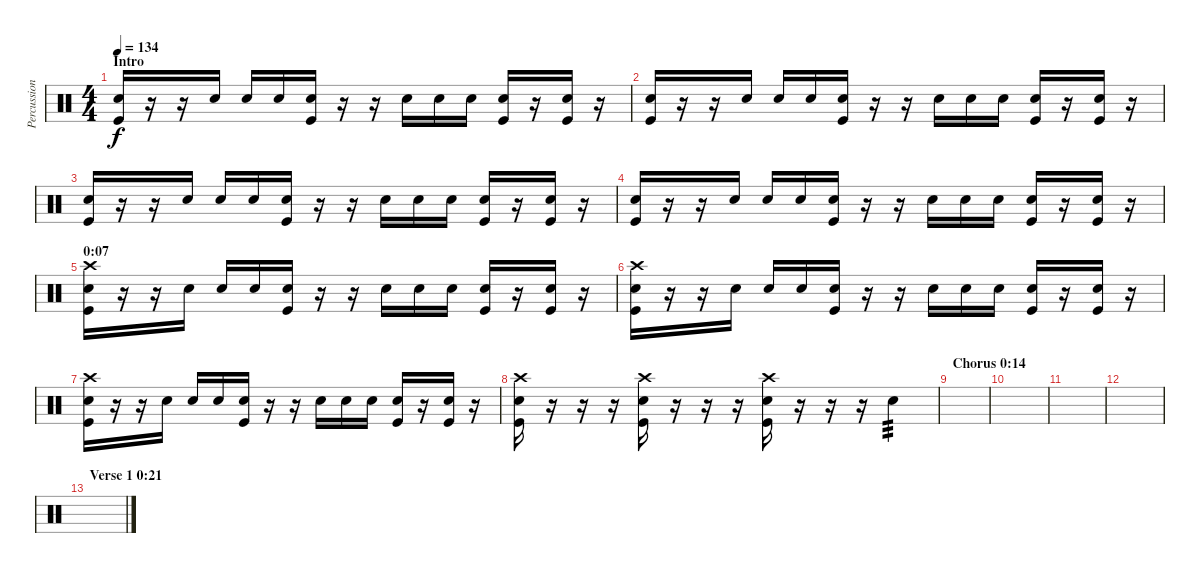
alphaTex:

\track ("Percussions" "Percussion") {instrument percussion}
\staff {score}
\articulation defaults
\ts (4 4)
\section ("" "Intro")
\tempo 134
\clef neutral
\ks c
("Kick (hit)" "Electric Snare (hit)").16{dy f} r.16 r.16 "Electric Snare (hit)".16 "Electric Snare (hit)".16 "Electric Snare (hit)".16 ("Kick (hit)" "Electric Snare (hit)").16 r.16 r.16 "Electric Snare (hit)".16 "Electric Snare (hit)".16 "Electric Snare (hit)".16 ("Kick (hit)" "Electric Snare (hit)").16 r.16 ("Kick (hit)" "Electric Snare (hit)").16 r.16 |
("Kick (hit)" "Electric Snare (hit)").16 r.16 r.16 "Electric Snare (hit)".16 "Electric Snare (hit)".16 "Electric Snare (hit)".16 ("Kick (hit)" "Electric Snare (hit)").16 r.16 r.16 "Electric Snare (hit)".16 "Electric Snare (hit)".16 "Electric Snare (hit)".16 ("Kick (hit)" "Electric Snare (hit)").16 r.16 ("Kick (hit)" "Electric Snare (hit)").16 r.16 |
("Kick (hit)" "Electric Snare (hit)").16 r.16 r.16 "Electric Snare (hit)".16 "Electric Snare (hit)".16 "Electric Snare (hit)".16 ("Kick (hit)" "Electric Snare (hit)").16 r.16 r.16 "Electric Snare (hit)".16 "Electric Snare (hit)".16 "Electric Snare (hit)".16 ("Kick (hit)" "Electric Snare (hit)").16 r.16 ("Kick (hit)" "Electric Snare (hit)").16 r.16 |
("Kick (hit)" "Electric Snare (hit)").16 r.16 r.16 "Electric Snare (hit)".16 "Electric Snare (hit)".16 "Electric Snare (hit)".16 ("Kick (hit)" "Electric Snare (hit)").16 r.16 r.16 "Electric Snare (hit)".16 "Electric Snare (hit)".16 "Electric Snare (hit)".16 ("Kick (hit)" "Electric Snare (hit)").16 r.16 ("Kick (hit)" "Electric Snare (hit)").16 r.16 |
\section ("" "0:07")
("Kick (hit)" "Electric Snare (hit)" "Crash high (hit)").16 r.16 r.16 "Electric Snare (hit)".16 "Electric Snare (hit)".16 "Electric Snare (hit)".16 ("Kick (hit)" "Electric Snare (hit)").16 r.16 r.16 "Electric Snare (hit)".16 "Electric Snare (hit)".16 "Electric Snare (hit)".16 ("Kick (hit)" "Electric Snare (hit)").16 r.16 ("Kick (hit)" "Electric Snare (hit)").16 r.16 |
("Kick (hit)" "Electric Snare (hit)" "Crash high (hit)").16 r.16 r.16 "Electric Snare (hit)".16 "Electric Snare (hit)".16 "Electric Snare (hit)".16 ("Kick (hit)" "Electric Snare (hit)").16 r.16 r.16 "Electric Snare (hit)".16 "Electric Snare (hit)".16 "Electric Snare (hit)".16 ("Kick (hit)" "Electric Snare (hit)").16 r.16 ("Kick (hit)" "Electric Snare (hit)").16 r.16 |
("Kick (hit)" "Electric Snare (hit)" "Crash high (hit)").16 r.16 r.16 "Electric Snare (hit)".16 "Electric Snare (hit)".16 "Electric Snare (hit)".16 ("Kick (hit)" "Electric Snare (hit)").16 r.16 r.16 "Electric Snare (hit)".16 "Electric Snare (hit)".16 "Electric Snare (hit)".16 ("Kick (hit)" "Electric Snare (hit)").16 r.16 ("Kick (hit)" "Electric Snare (hit)").16 r.16 |
("Kick (hit)" "Electric Snare (hit)" "Crash high (hit)").16 r.16 r.16 r.16 ("Kick (hit)" "Electric Snare (hit)" "Crash high (hit)").16 r.16 r.16 r.16 ("Kick (hit)" "Electric Snare (hit)" "Crash high (hit)").16 r.16 r.16 r.16 "Electric Snare (hit)".4{tp 3} |
\section ("" "Chorus 0:14")
|
|
|
|
\section ("" "Verse 1 0:21")
